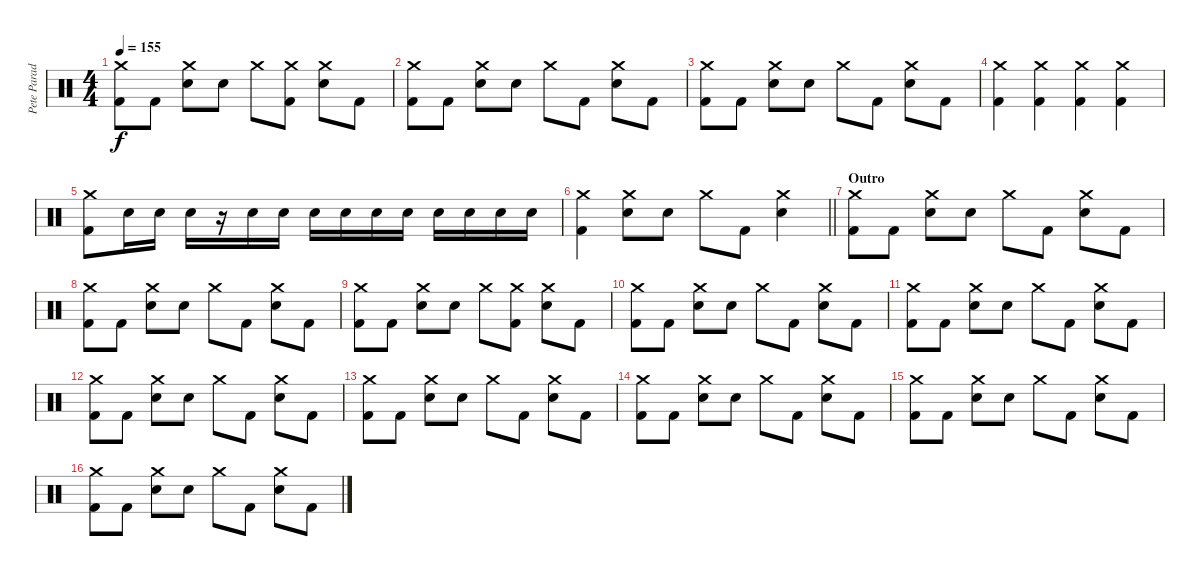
\track ("Pete Parada - Drums" "Pete Parad") {instrument percussion}
\staff {score}
\articulation defaults
\ts (4 4)
\tempo 155
\clef neutral
\ks c
("Crash medium (hit)" "Kick (hit) 2").8{dy f} "Kick (hit) 2".8 ("Crash medium (hit)" "Electric Snare (hit)").8 "Electric Snare (hit)".8 "Crash medium (hit)".8 ("Crash medium (hit)" "Kick (hit) 2").8 ("Crash medium (hit)" "Electric Snare (hit)").8 "Kick (hit) 2".8 |
("Crash medium (hit)" "Kick (hit) 2").8 "Kick (hit) 2".8 ("Crash medium (hit)" "Electric Snare (hit)").8 "Electric Snare (hit)".8 "Crash medium (hit)".8 "Kick (hit) 2".8 ("Crash medium (hit)" "Electric Snare (hit)").8 "Kick (hit) 2".8 |
("Crash medium (hit)" "Kick (hit) 2").8 "Kick (hit) 2".8 ("Crash medium (hit)" "Electric Snare (hit)").8 "Electric Snare (hit)".8 "Crash medium (hit)".8 "Kick (hit) 2".8 ("Crash medium (hit)" "Electric Snare (hit)").8 "Kick (hit) 2".8 |
("Crash medium (hit)" "Kick (hit) 2").4 ("Crash medium (hit)" "Kick (hit) 2").4 ("Crash medium (hit)" "Kick (hit) 2").4 ("Crash medium (hit)" "Kick (hit) 2").4 |
("Crash medium (hit)" "Kick (hit) 2").8 "Electric Snare (hit)".16 "Electric Snare (hit)".16 "Electric Snare (hit)".16 r.16 "Electric Snare (hit)".16 "Electric Snare (hit)".16 "Electric Snare (hit)".16 "Electric Snare (hit)".16 "Electric Snare (hit)".16 "Electric Snare (hit)".16 "Electric Snare (hit)".16 "Electric Snare (hit)".16 "Electric Snare (hit)".16 "Electric Snare (hit)".16 |
\barLineRight lightlight
("Crash medium (hit)" "Kick (hit) 2").4 ("Crash medium (hit)" "Electric Snare (hit)").8 "Electric Snare (hit)".8 "Crash medium (hit)".8 "Kick (hit) 2".8 ("Crash medium (hit)" "Electric Snare (hit)").4 |
\section ("" "Outro")
("Crash medium (hit)" "Kick (hit) 2").8 "Kick (hit) 2".8 ("Crash medium (hit)" "Electric Snare (hit)").8 "Electric Snare (hit)".8 "Crash medium (hit)".8 "Kick (hit) 2".8 ("Crash medium (hit)" "Electric Snare (hit)").8 "Kick (hit) 2".8 |
("Crash medium (hit)" "Kick (hit) 2").8 "Kick (hit) 2".8 ("Crash medium (hit)" "Electric Snare (hit)").8 "Electric Snare (hit)".8 "Crash medium (hit)".8 "Kick (hit) 2".8 ("Crash medium (hit)" "Electric Snare (hit)").8 "Kick (hit) 2".8 |
("Crash medium (hit)" "Kick (hit) 2").8 "Kick (hit) 2".8 ("Crash medium (hit)" "Electric Snare (hit)").8 "Electric Snare (hit)".8 "Crash medium (hit)".8 ("Crash medium (hit)" "Kick (hit) 2").8 ("Crash medium (hit)" "Electric Snare (hit)").8 "Kick (hit) 2".8 |
("Crash medium (hit)" "Kick (hit) 2").8 "Kick (hit) 2".8 ("Crash medium (hit)" "Electric Snare (hit)").8 "Electric Snare (hit)".8 "Crash medium (hit)".8 "Kick (hit) 2".8 ("Crash medium (hit)" "Electric Snare (hit)").8 "Kick (hit) 2".8 |
("Crash medium (hit)" "Kick (hit) 2").8 "Kick (hit) 2".8 ("Crash medium (hit)" "Electric Snare (hit)").8 "Electric Snare (hit)".8 "Crash medium (hit)".8 "Kick (hit) 2".8 ("Crash medium (hit)" "Electric Snare (hit)").8 "Kick (hit) 2".8 |
("Crash medium (hit)" "Kick (hit) 2").8 "Kick (hit) 2".8 ("Crash medium (hit)" "Electric Snare (hit)").8 "Electric Snare (hit)".8 "Crash medium (hit)".8 "Kick (hit) 2".8 ("Crash medium (hit)" "Electric Snare (hit)").8 "Kick (hit) 2".8 |
("Crash medium (hit)" "Kick (hit) 2").8 "Kick (hit) 2".8 ("Crash medium (hit)" "Electric Snare (hit)").8 "Electric Snare (hit)".8 "Crash medium (hit)".8 "Kick (hit) 2".8 ("Crash medium (hit)" "Electric Snare (hit)").8 "Kick (hit) 2".8 |
("Crash medium (hit)" "Kick (hit) 2").8 "Kick (hit) 2".8 ("Crash medium (hit)" "Electric Snare (hit)").8 "Electric Snare (hit)".8 "Crash medium (hit)".8 "Kick (hit) 2".8 ("Crash medium (hit)" "Electric Snare (hit)").8 "Kick (hit) 2".8 |
("Crash medium (hit)" "Kick (hit) 2").8 "Kick (hit) 2".8 ("Crash medium (hit)" "Electric Snare (hit)").8 "Electric Snare (hit)".8 "Crash medium (hit)".8 "Kick (hit) 2".8 ("Crash medium (hit)" "Electric Snare (hit)").8 "Kick (hit) 2".8 |
("Crash medium (hit)" "Kick (hit) 2").8 "Kick (hit) 2".8 ("Crash medium (hit)" "Electric Snare (hit)").8 "Electric Snare (hit)".8 "Crash medium (hit)".8 "Kick (hit) 2".8 ("Crash medium (hit)" "Electric Snare (hit)").8 "Kick (hit) 2".8
